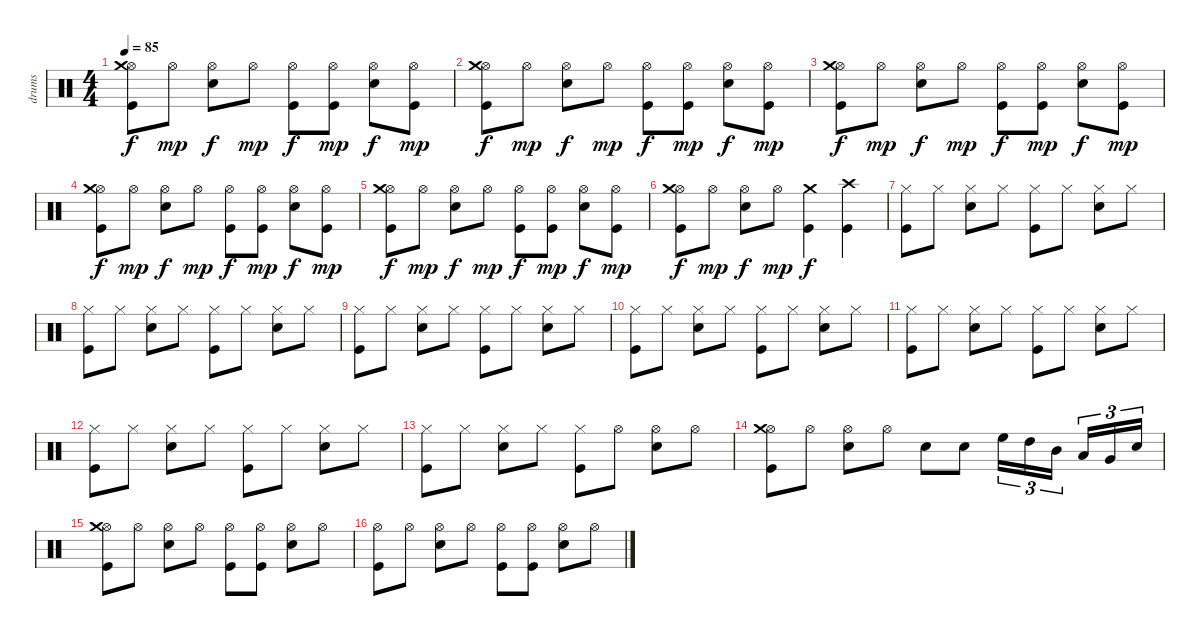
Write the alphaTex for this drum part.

\track ("drums" "drums") {instrument percussion}
\staff {score}
\articulation defaults
\ts (4 4)
\tempo 85
\clef neutral
\ks c
("Hi-Hat (open)" "Kick (hit)" "Crash medium (hit)").8{dy f} "Hi-Hat (open)".8{dy mp} ("Hi-Hat (open)" "Snare (hit) 2").8{dy f} "Hi-Hat (open)".8{dy mp} ("Hi-Hat (open)" "Kick (hit)").8{dy f} ("Hi-Hat (open)" "Kick (hit)").8{dy mp} ("Hi-Hat (open)" "Snare (hit) 2").8{dy f} ("Hi-Hat (open)" "Kick (hit)").8{dy mp} |
("Hi-Hat (open)" "Kick (hit)" "Crash medium (hit)").8{dy f} "Hi-Hat (open)".8{dy mp} ("Hi-Hat (open)" "Snare (hit) 2").8{dy f} "Hi-Hat (open)".8{dy mp} ("Hi-Hat (open)" "Kick (hit)").8{dy f} ("Hi-Hat (open)" "Kick (hit)").8{dy mp} ("Hi-Hat (open)" "Snare (hit) 2").8{dy f} ("Hi-Hat (open)" "Kick (hit)").8{dy mp} |
("Hi-Hat (open)" "Kick (hit)" "Crash medium (hit)").8{dy f} "Hi-Hat (open)".8{dy mp} ("Hi-Hat (open)" "Snare (hit) 2").8{dy f} "Hi-Hat (open)".8{dy mp} ("Hi-Hat (open)" "Kick (hit)").8{dy f} ("Hi-Hat (open)" "Kick (hit)").8{dy mp} ("Hi-Hat (open)" "Snare (hit) 2").8{dy f} ("Hi-Hat (open)" "Kick (hit)").8{dy mp} |
("Hi-Hat (open)" "Kick (hit)" "Crash medium (hit)").8{dy f} "Hi-Hat (open)".8{dy mp} ("Hi-Hat (open)" "Snare (hit) 2").8{dy f} "Hi-Hat (open)".8{dy mp} ("Hi-Hat (open)" "Kick (hit)").8{dy f} ("Hi-Hat (open)" "Kick (hit)").8{dy mp} ("Hi-Hat (open)" "Snare (hit) 2").8{dy f} ("Hi-Hat (open)" "Kick (hit)").8{dy mp} |
("Hi-Hat (open)" "Kick (hit)" "Crash medium (hit)").8{dy f} "Hi-Hat (open)".8{dy mp} ("Hi-Hat (open)" "Snare (hit) 2").8{dy f} "Hi-Hat (open)".8{dy mp} ("Hi-Hat (open)" "Kick (hit)").8{dy f} ("Hi-Hat (open)" "Kick (hit)").8{dy mp} ("Hi-Hat (open)" "Snare (hit) 2").8{dy f} ("Hi-Hat (open)" "Kick (hit)").8{dy mp} |
("Hi-Hat (open)" "Kick (hit)" "Crash medium (hit)").8{dy f} "Hi-Hat (open)".8{dy mp} ("Hi-Hat (open)" "Snare (hit) 2").8{dy f} "Hi-Hat (open)".8{dy mp} ("Crash medium (hit)" "Kick (hit)").4{dy f} ("Crash high (hit)" "Kick (hit)").4 |
("Hi-Hat (closed)" "Kick (hit)").8 "Hi-Hat (closed)".8 ("Hi-Hat (closed)" "Snare (hit) 2").8 "Hi-Hat (closed)".8 ("Hi-Hat (closed)" "Kick (hit)").8 "Hi-Hat (closed)".8 ("Hi-Hat (closed)" "Snare (hit) 2").8 "Hi-Hat (closed)".8 |
("Hi-Hat (closed)" "Kick (hit)").8 "Hi-Hat (closed)".8 ("Hi-Hat (closed)" "Snare (hit) 2").8 "Hi-Hat (closed)".8 ("Hi-Hat (closed)" "Kick (hit)").8 "Hi-Hat (closed)".8 ("Hi-Hat (closed)" "Snare (hit) 2").8 "Hi-Hat (closed)".8 |
("Hi-Hat (closed)" "Kick (hit)").8 "Hi-Hat (closed)".8 ("Hi-Hat (closed)" "Snare (hit) 2").8 "Hi-Hat (closed)".8 ("Hi-Hat (closed)" "Kick (hit)").8 "Hi-Hat (closed)".8 ("Hi-Hat (closed)" "Snare (hit) 2").8 "Hi-Hat (closed)".8 |
("Hi-Hat (closed)" "Kick (hit)").8 "Hi-Hat (closed)".8 ("Hi-Hat (closed)" "Snare (hit) 2").8 "Hi-Hat (closed)".8 ("Hi-Hat (closed)" "Kick (hit)").8 "Hi-Hat (closed)".8 ("Hi-Hat (closed)" "Snare (hit) 2").8 "Hi-Hat (closed)".8 |
("Hi-Hat (closed)" "Kick (hit)").8 "Hi-Hat (closed)".8 ("Hi-Hat (closed)" "Snare (hit) 2").8 "Hi-Hat (closed)".8 ("Hi-Hat (closed)" "Kick (hit)").8 "Hi-Hat (closed)".8 ("Hi-Hat (closed)" "Snare (hit) 2").8 "Hi-Hat (closed)".8 |
("Hi-Hat (closed)" "Kick (hit)").8 "Hi-Hat (closed)".8 ("Hi-Hat (closed)" "Snare (hit) 2").8 "Hi-Hat (closed)".8 ("Hi-Hat (closed)" "Kick (hit)").8 "Hi-Hat (closed)".8 ("Hi-Hat (closed)" "Snare (hit) 2").8 "Hi-Hat (closed)".8 |
("Hi-Hat (closed)" "Kick (hit)").8 "Hi-Hat (closed)".8 ("Hi-Hat (closed)" "Snare (hit) 2").8 "Hi-Hat (closed)".8 ("Hi-Hat (closed)" "Kick (hit)").8 "Hi-Hat (open)".8 ("Hi-Hat (open)" "Snare (hit) 2").8 "Hi-Hat (open)".8 |
("Hi-Hat (open)" "Crash medium (hit)" "Kick (hit)").8 "Hi-Hat (open)".8 ("Hi-Hat (open)" "Snare (hit) 2").8 "Hi-Hat (open)".8 "Snare (hit) 2".8 "Snare (hit) 2".8 "High Floor Tom (hit)".16{tu (3 2)} "High Tom (hit)".16{tu (3 2)} "Mid Tom (hit)".16{tu (3 2)} "Low Tom (hit)".16{tu (3 2)} "Very Low Tom (hit)".16{tu (3 2)} "Snare (hit) 2".16{tu (3 2)} |
("Hi-Hat (open)" "Kick (hit)" "Crash medium (hit)").8 "Hi-Hat (open)".8 ("Hi-Hat (open)" "Snare (hit) 2").8 "Hi-Hat (open)".8 ("Hi-Hat (open)" "Kick (hit)").8 ("Hi-Hat (open)" "Kick (hit)").8 ("Hi-Hat (open)" "Snare (hit) 2").8 "Hi-Hat (open)".8 |
("Hi-Hat (open)" "Kick (hit)").8 "Hi-Hat (open)".8 ("Hi-Hat (open)" "Snare (hit) 2").8 "Hi-Hat (open)".8 ("Hi-Hat (open)" "Kick (hit)").8 ("Hi-Hat (open)" "Kick (hit)").8 ("Hi-Hat (open)" "Snare (hit) 2").8 "Hi-Hat (open)".8
